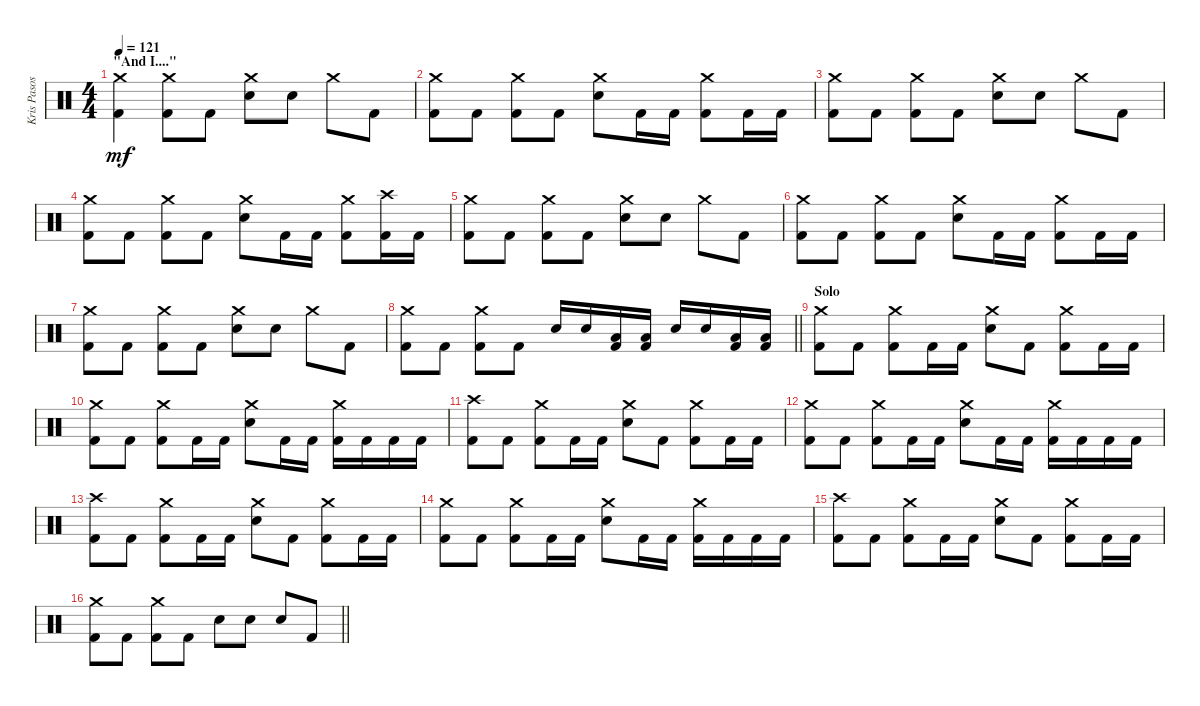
\track ("Kris Pasos" "Kris Pasos") {instrument percussion}
\staff {score}
\articulation defaults
\ts (4 4)
\section ("" "\"And I....\"")
\tempo 121
\clef neutral
\ks c
("Crash medium (hit)" "Kick (hit) 2").4{dy mf} ("Crash medium (hit)" "Kick (hit) 2").8 "Kick (hit) 2".8 ("Crash medium (hit)" "Snare (hit) 2").8 "Snare (hit) 2".8 "Crash medium (hit)".8 "Kick (hit) 2".8 |
("Crash medium (hit)" "Kick (hit) 2").8 "Kick (hit) 2".8 ("Crash medium (hit)" "Kick (hit) 2").8 "Kick (hit) 2".8 ("Crash medium (hit)" "Snare (hit) 2").8 "Kick (hit) 2".16 "Kick (hit) 2".16 ("Crash medium (hit)" "Kick (hit) 2").8 "Kick (hit) 2".16 "Kick (hit) 2".16 |
("Crash medium (hit)" "Kick (hit) 2").8 "Kick (hit) 2".8 ("Crash medium (hit)" "Kick (hit) 2").8 "Kick (hit) 2".8 ("Crash medium (hit)" "Snare (hit) 2").8 "Snare (hit) 2".8 "Crash medium (hit)".8 "Kick (hit) 2".8 |
("Crash medium (hit)" "Kick (hit) 2").8 "Kick (hit) 2".8 ("Crash medium (hit)" "Kick (hit) 2").8 "Kick (hit) 2".8 ("Crash medium (hit)" "Snare (hit) 2").8 "Kick (hit) 2".16 "Kick (hit) 2".16 ("Crash medium (hit)" "Kick (hit) 2").8 ("Crash high (hit)" "Kick (hit) 2").16 "Kick (hit) 2".16 |
("Crash medium (hit)" "Kick (hit) 2").8 "Kick (hit) 2".8 ("Crash medium (hit)" "Kick (hit) 2").8 "Kick (hit) 2".8 ("Crash medium (hit)" "Snare (hit) 2").8 "Snare (hit) 2".8 "Crash medium (hit)".8 "Kick (hit) 2".8 |
("Crash medium (hit)" "Kick (hit) 2").8 "Kick (hit) 2".8 ("Crash medium (hit)" "Kick (hit) 2").8 "Kick (hit) 2".8 ("Crash medium (hit)" "Snare (hit) 2").8 "Kick (hit) 2".16 "Kick (hit) 2".16 ("Crash medium (hit)" "Kick (hit) 2").8 "Kick (hit) 2".16 "Kick (hit) 2".16 |
("Crash medium (hit)" "Kick (hit) 2").8 "Kick (hit) 2".8 ("Crash medium (hit)" "Kick (hit) 2").8 "Kick (hit) 2".8 ("Crash medium (hit)" "Snare (hit) 2").8 "Snare (hit) 2".8 "Crash medium (hit)".8 "Kick (hit) 2".8 |
\barLineRight lightlight
("Crash medium (hit)" "Kick (hit) 2").8 "Kick (hit) 2".8 ("Crash medium (hit)" "Kick (hit) 2").8 "Kick (hit) 2".8 "Snare (hit) 2".16 "Snare (hit) 2".16 ("Low Floor Tom (hit)" "Kick (hit) 2").16 ("Low Floor Tom (hit)" "Kick (hit) 2").16 "Snare (hit) 2".16 "Snare (hit) 2".16 ("Low Floor Tom (hit)" "Kick (hit) 2").16 ("Low Floor Tom (hit)" "Kick (hit) 2").16 |
\section ("" "Solo")
("Crash medium (hit)" "Kick (hit) 2").8 "Kick (hit) 2".8 ("Crash medium (hit)" "Kick (hit) 2").8 "Kick (hit) 2".16 "Kick (hit) 2".16 ("Crash medium (hit)" "Snare (hit) 2").8 "Kick (hit) 2".8 ("Crash medium (hit)" "Kick (hit) 2").8 "Kick (hit) 2".16 "Kick (hit) 2".16 |
("Crash medium (hit)" "Kick (hit) 2").8 "Kick (hit) 2".8 ("Crash medium (hit)" "Kick (hit) 2").8 "Kick (hit) 2".16 "Kick (hit) 2".16 ("Crash medium (hit)" "Snare (hit) 2").8 "Kick (hit) 2".16 "Kick (hit) 2".16 ("Crash medium (hit)" "Kick (hit) 2").16 "Kick (hit) 2".16 "Kick (hit) 2".16 "Kick (hit) 2".16 |
("Crash high (hit)" "Kick (hit) 2").8 "Kick (hit) 2".8 ("Crash medium (hit)" "Kick (hit) 2").8 "Kick (hit) 2".16 "Kick (hit) 2".16 ("Crash medium (hit)" "Snare (hit) 2").8 "Kick (hit) 2".8 ("Crash medium (hit)" "Kick (hit) 2").8 "Kick (hit) 2".16 "Kick (hit) 2".16 |
("Crash medium (hit)" "Kick (hit) 2").8 "Kick (hit) 2".8 ("Crash medium (hit)" "Kick (hit) 2").8 "Kick (hit) 2".16 "Kick (hit) 2".16 ("Crash medium (hit)" "Snare (hit) 2").8 "Kick (hit) 2".16 "Kick (hit) 2".16 ("Crash medium (hit)" "Kick (hit) 2").16 "Kick (hit) 2".16 "Kick (hit) 2".16 "Kick (hit) 2".16 |
("Crash high (hit)" "Kick (hit) 2").8 "Kick (hit) 2".8 ("Crash medium (hit)" "Kick (hit) 2").8 "Kick (hit) 2".16 "Kick (hit) 2".16 ("Crash medium (hit)" "Snare (hit) 2").8 "Kick (hit) 2".8 ("Crash medium (hit)" "Kick (hit) 2").8 "Kick (hit) 2".16 "Kick (hit) 2".16 |
("Crash medium (hit)" "Kick (hit) 2").8 "Kick (hit) 2".8 ("Crash medium (hit)" "Kick (hit) 2").8 "Kick (hit) 2".16 "Kick (hit) 2".16 ("Crash medium (hit)" "Snare (hit) 2").8 "Kick (hit) 2".16 "Kick (hit) 2".16 ("Crash medium (hit)" "Kick (hit) 2").16 "Kick (hit) 2".16 "Kick (hit) 2".16 "Kick (hit) 2".16 |
("Crash high (hit)" "Kick (hit) 2").8 "Kick (hit) 2".8 ("Crash medium (hit)" "Kick (hit) 2").8 "Kick (hit) 2".16 "Kick (hit) 2".16 ("Crash medium (hit)" "Snare (hit) 2").8 "Kick (hit) 2".8 ("Crash medium (hit)" "Kick (hit) 2").8 "Kick (hit) 2".16 "Kick (hit) 2".16 |
\barLineRight lightlight
("Crash medium (hit)" "Kick (hit) 2").8 "Kick (hit) 2".8 ("Crash medium (hit)" "Kick (hit) 2").8 "Kick (hit) 2".8 "Snare (hit) 2".8 "Snare (hit) 2".8 "Snare (hit) 2".8 "Kick (hit) 2".8
